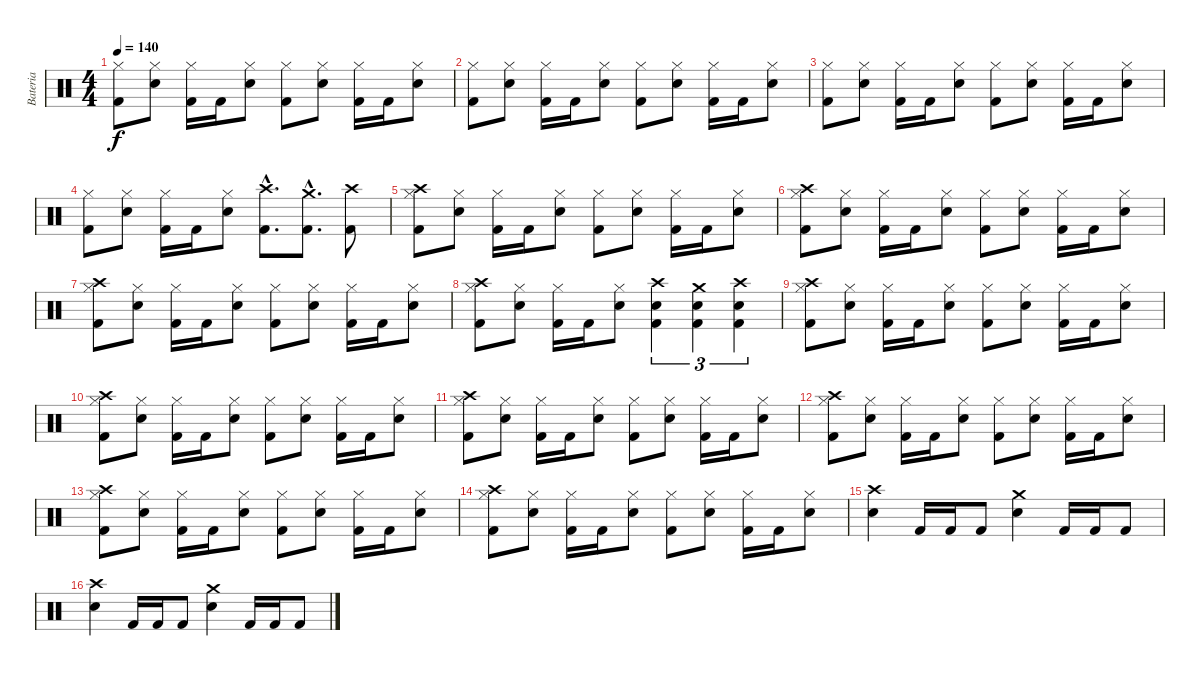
\track ("Bateria" "Bateria") {instrument percussion}
\staff {score}
\articulation defaults
\ts (4 4)
\tempo 140
\clef neutral
\ks c
("Kick (hit) 2" "Hi-Hat (closed)").8{dy f} ("Electric Snare (hit)" "Hi-Hat (closed)").8 ("Kick (hit) 2" "Hi-Hat (closed)").16 "Kick (hit) 2".16 ("Electric Snare (hit)" "Hi-Hat (closed)").8 ("Kick (hit) 2" "Hi-Hat (closed)").8 ("Electric Snare (hit)" "Hi-Hat (closed)").8 ("Kick (hit) 2" "Hi-Hat (closed)").16 "Kick (hit) 2".16 ("Electric Snare (hit)" "Hi-Hat (closed)").8 |
("Kick (hit) 2" "Hi-Hat (closed)").8 ("Electric Snare (hit)" "Hi-Hat (closed)").8 ("Kick (hit) 2" "Hi-Hat (closed)").16 "Kick (hit) 2".16 ("Electric Snare (hit)" "Hi-Hat (closed)").8 ("Kick (hit) 2" "Hi-Hat (closed)").8 ("Electric Snare (hit)" "Hi-Hat (closed)").8 ("Kick (hit) 2" "Hi-Hat (closed)").16 "Kick (hit) 2".16 ("Electric Snare (hit)" "Hi-Hat (closed)").8 |
("Kick (hit) 2" "Hi-Hat (closed)").8 ("Electric Snare (hit)" "Hi-Hat (closed)").8 ("Kick (hit) 2" "Hi-Hat (closed)").16 "Kick (hit) 2".16 ("Electric Snare (hit)" "Hi-Hat (closed)").8 ("Kick (hit) 2" "Hi-Hat (closed)").8 ("Electric Snare (hit)" "Hi-Hat (closed)").8 ("Kick (hit) 2" "Hi-Hat (closed)").16 "Kick (hit) 2".16 ("Electric Snare (hit)" "Hi-Hat (closed)").8 |
("Kick (hit) 2" "Hi-Hat (closed)").8 ("Electric Snare (hit)" "Hi-Hat (closed)").8 ("Kick (hit) 2" "Hi-Hat (closed)").16 "Kick (hit) 2".16 ("Electric Snare (hit)" "Hi-Hat (closed)").8 ("Kick (hit) 2"{hac} "Crash high (hit)"{hac}).8{d} ("Kick (hit) 2"{hac} "Crash medium (hit)"{hac}).8{d} ("Kick (hit) 2" "Crash high (hit)").8 |
("Kick (hit) 2" "Hi-Hat (closed)" "Crash high (hit)").8 ("Electric Snare (hit)" "Hi-Hat (closed)").8 ("Kick (hit) 2" "Hi-Hat (closed)").16 "Kick (hit) 2".16 ("Electric Snare (hit)" "Hi-Hat (closed)").8 ("Kick (hit) 2" "Hi-Hat (closed)").8 ("Electric Snare (hit)" "Hi-Hat (closed)").8 ("Kick (hit) 2" "Hi-Hat (closed)").16 "Kick (hit) 2".16 ("Electric Snare (hit)" "Hi-Hat (closed)").8 |
("Kick (hit) 2" "Hi-Hat (closed)" "Crash high (hit)").8 ("Electric Snare (hit)" "Hi-Hat (closed)").8 ("Kick (hit) 2" "Hi-Hat (closed)").16 "Kick (hit) 2".16 ("Electric Snare (hit)" "Hi-Hat (closed)").8 ("Kick (hit) 2" "Hi-Hat (closed)").8 ("Electric Snare (hit)" "Hi-Hat (closed)").8 ("Kick (hit) 2" "Hi-Hat (closed)").16 "Kick (hit) 2".16 ("Electric Snare (hit)" "Hi-Hat (closed)").8 |
("Kick (hit) 2" "Hi-Hat (closed)" "Crash high (hit)").8 ("Electric Snare (hit)" "Hi-Hat (closed)").8 ("Kick (hit) 2" "Hi-Hat (closed)").16 "Kick (hit) 2".16 ("Electric Snare (hit)" "Hi-Hat (closed)").8 ("Kick (hit) 2" "Hi-Hat (closed)").8 ("Electric Snare (hit)" "Hi-Hat (closed)").8 ("Kick (hit) 2" "Hi-Hat (closed)").16 "Kick (hit) 2".16 ("Electric Snare (hit)" "Hi-Hat (closed)").8 |
("Kick (hit) 2" "Hi-Hat (closed)" "Crash high (hit)").8 ("Electric Snare (hit)" "Hi-Hat (closed)").8 ("Kick (hit) 2" "Hi-Hat (closed)").16 "Kick (hit) 2".16 ("Electric Snare (hit)" "Hi-Hat (closed)").8 ("Kick (hit) 2" "Crash high (hit)" "Electric Snare (hit)").4{tu (3 2)} ("Kick (hit) 2" "Crash medium (hit)" "Electric Snare (hit)").4{tu (3 2)} ("Kick (hit) 2" "Crash high (hit)" "Electric Snare (hit)").4{tu (3 2)} |
("Kick (hit) 2" "Hi-Hat (closed)" "Crash high (hit)").8 ("Electric Snare (hit)" "Hi-Hat (closed)").8 ("Kick (hit) 2" "Hi-Hat (closed)").16 "Kick (hit) 2".16 ("Electric Snare (hit)" "Hi-Hat (closed)").8 ("Kick (hit) 2" "Hi-Hat (closed)").8 ("Electric Snare (hit)" "Hi-Hat (closed)").8 ("Kick (hit) 2" "Hi-Hat (closed)").16 "Kick (hit) 2".16 ("Electric Snare (hit)" "Hi-Hat (closed)").8 |
("Kick (hit) 2" "Hi-Hat (closed)" "Crash high (hit)").8 ("Electric Snare (hit)" "Hi-Hat (closed)").8 ("Kick (hit) 2" "Hi-Hat (closed)").16 "Kick (hit) 2".16 ("Electric Snare (hit)" "Hi-Hat (closed)").8 ("Kick (hit) 2" "Hi-Hat (closed)").8 ("Electric Snare (hit)" "Hi-Hat (closed)").8 ("Kick (hit) 2" "Hi-Hat (closed)").16 "Kick (hit) 2".16 ("Electric Snare (hit)" "Hi-Hat (closed)").8 |
("Kick (hit) 2" "Hi-Hat (closed)" "Crash high (hit)").8 ("Electric Snare (hit)" "Hi-Hat (closed)").8 ("Kick (hit) 2" "Hi-Hat (closed)").16 "Kick (hit) 2".16 ("Electric Snare (hit)" "Hi-Hat (closed)").8 ("Kick (hit) 2" "Hi-Hat (closed)").8 ("Electric Snare (hit)" "Hi-Hat (closed)").8 ("Kick (hit) 2" "Hi-Hat (closed)").16 "Kick (hit) 2".16 ("Electric Snare (hit)" "Hi-Hat (closed)").8 |
("Kick (hit) 2" "Hi-Hat (closed)" "Crash high (hit)").8 ("Electric Snare (hit)" "Hi-Hat (closed)").8 ("Kick (hit) 2" "Hi-Hat (closed)").16 "Kick (hit) 2".16 ("Electric Snare (hit)" "Hi-Hat (closed)").8 ("Kick (hit) 2" "Hi-Hat (closed)").8 ("Electric Snare (hit)" "Hi-Hat (closed)").8 ("Kick (hit) 2" "Hi-Hat (closed)").16 "Kick (hit) 2".16 ("Electric Snare (hit)" "Hi-Hat (closed)").8 |
("Kick (hit) 2" "Hi-Hat (closed)" "Crash high (hit)").8 ("Electric Snare (hit)" "Hi-Hat (closed)").8 ("Kick (hit) 2" "Hi-Hat (closed)").16 "Kick (hit) 2".16 ("Electric Snare (hit)" "Hi-Hat (closed)").8 ("Kick (hit) 2" "Hi-Hat (closed)").8 ("Electric Snare (hit)" "Hi-Hat (closed)").8 ("Kick (hit) 2" "Hi-Hat (closed)").16 "Kick (hit) 2".16 ("Electric Snare (hit)" "Hi-Hat (closed)").8 |
("Kick (hit) 2" "Hi-Hat (closed)" "Crash high (hit)").8 ("Electric Snare (hit)" "Hi-Hat (closed)").8 ("Kick (hit) 2" "Hi-Hat (closed)").16 "Kick (hit) 2".16 ("Electric Snare (hit)" "Hi-Hat (closed)").8 ("Kick (hit) 2" "Hi-Hat (closed)").8 ("Electric Snare (hit)" "Hi-Hat (closed)").8 ("Kick (hit) 2" "Hi-Hat (closed)").16 "Kick (hit) 2".16 ("Electric Snare (hit)" "Hi-Hat (closed)").8 |
("Electric Snare (hit)" "Crash high (hit)").4 "Kick (hit) 2".16 "Kick (hit) 2".16 "Kick (hit) 2".8 ("Electric Snare (hit)" "Crash medium (hit)").4 "Kick (hit) 2".16 "Kick (hit) 2".16 "Kick (hit) 2".8 |
("Electric Snare (hit)" "Crash high (hit)").4 "Kick (hit) 2".16 "Kick (hit) 2".16 "Kick (hit) 2".8 ("Electric Snare (hit)" "Crash medium (hit)").4 "Kick (hit) 2".16 "Kick (hit) 2".16 "Kick (hit) 2".8
